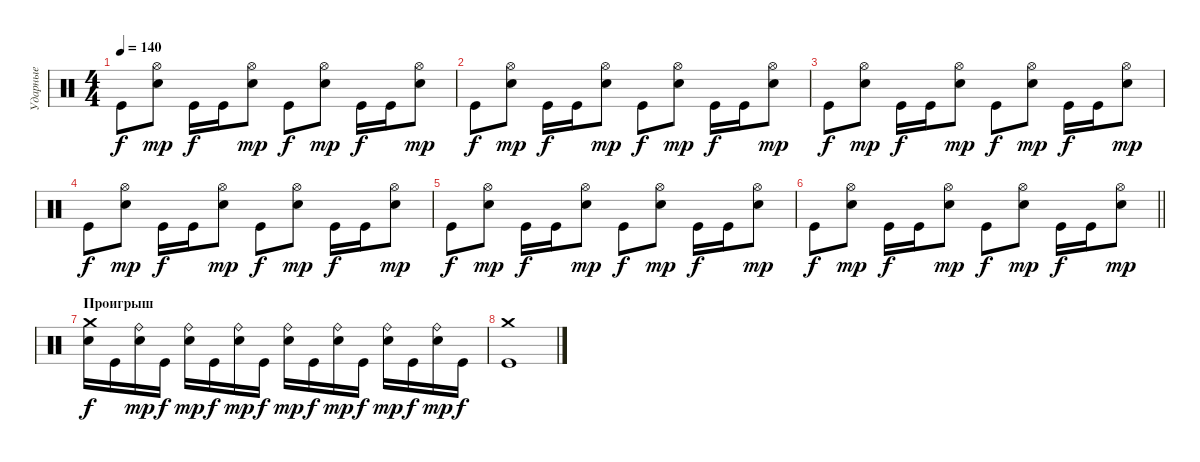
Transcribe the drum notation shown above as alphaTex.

\track ("Ударные" "Ударные") {instrument percussion}
\staff {score}
\articulation defaults
\ts (4 4)
\tempo 140
\clef neutral
\ks c "Kick (hit)".8{dy f}
("Hi-Hat (open)" "Electric Snare (hit)").8{dy mp} "Kick (hit)".16{dy f} "Kick (hit)".16 ("Hi-Hat (open)" "Electric Snare (hit)").8{dy mp} "Kick (hit)".8{dy f} ("Hi-Hat (open)" "Electric Snare (hit)").8{dy mp} "Kick (hit)".16{dy f} "Kick (hit)".16 ("Hi-Hat (open)" "Electric Snare (hit)").8{dy mp} |
"Kick (hit)".8{dy f} ("Hi-Hat (open)" "Electric Snare (hit)").8{dy mp} "Kick (hit)".16{dy f} "Kick (hit)".16 ("Hi-Hat (open)" "Electric Snare (hit)").8{dy mp} "Kick (hit)".8{dy f} ("Hi-Hat (open)" "Electric Snare (hit)").8{dy mp} "Kick (hit)".16{dy f} "Kick (hit)".16 ("Hi-Hat (open)" "Electric Snare (hit)").8{dy mp} |
"Kick (hit)".8{dy f} ("Hi-Hat (open)" "Electric Snare (hit)").8{dy mp} "Kick (hit)".16{dy f} "Kick (hit)".16 ("Hi-Hat (open)" "Electric Snare (hit)").8{dy mp} "Kick (hit)".8{dy f} ("Hi-Hat (open)" "Electric Snare (hit)").8{dy mp} "Kick (hit)".16{dy f} "Kick (hit)".16 ("Hi-Hat (open)" "Electric Snare (hit)").8{dy mp} |
"Kick (hit)".8{dy f} ("Hi-Hat (open)" "Electric Snare (hit)").8{dy mp} "Kick (hit)".16{dy f} "Kick (hit)".16 ("Hi-Hat (open)" "Electric Snare (hit)").8{dy mp} "Kick (hit)".8{dy f} ("Hi-Hat (open)" "Electric Snare (hit)").8{dy mp} "Kick (hit)".16{dy f} "Kick (hit)".16 ("Hi-Hat (open)" "Electric Snare (hit)").8{dy mp} |
"Kick (hit)".8{dy f} ("Hi-Hat (open)" "Electric Snare (hit)").8{dy mp} "Kick (hit)".16{dy f} "Kick (hit)".16 ("Hi-Hat (open)" "Electric Snare (hit)").8{dy mp} "Kick (hit)".8{dy f} ("Hi-Hat (open)" "Electric Snare (hit)").8{dy mp} "Kick (hit)".16{dy f} "Kick (hit)".16 ("Hi-Hat (open)" "Electric Snare (hit)").8{dy mp} |
\barLineRight lightlight "Kick (hit)".8{dy f}
("Hi-Hat (open)" "Electric Snare (hit)").8{dy mp} "Kick (hit)".16{dy f} "Kick (hit)".16 ("Hi-Hat (open)" "Electric Snare (hit)").8{dy mp} "Kick (hit)".8{dy f} ("Hi-Hat (open)" "Electric Snare (hit)").8{dy mp} "Kick (hit)".16{dy f} "Kick (hit)".16 ("Hi-Hat (open)" "Electric Snare (hit)").8{dy mp} |
\section ("" "Проигрыш")
("Crash medium (hit)" "Electric Snare (hit)").16{dy f} "Kick (hit)".16 ("Ride (bell)" "Electric Snare (hit)").16{dy mp} "Kick (hit)".16{dy f} ("Ride (bell)" "Electric Snare (hit)").16{dy mp} "Kick (hit)".16{dy f} ("Ride (bell)" "Electric Snare (hit)").16{dy mp} "Kick (hit)".16{dy f} ("Ride (bell)" "Electric Snare (hit)").16{dy mp} "Kick (hit)".16{dy f} ("Ride (bell)" "Electric Snare (hit)").16{dy mp} "Kick (hit)".16{dy f} ("Ride (bell)" "Electric Snare (hit)").16{dy mp} "Kick (hit)".16{dy f} ("Ride (bell)" "Electric Snare (hit)").16{dy mp} "Kick (hit)".16{dy f} |
("Crash medium (hit)" "Kick (hit)").1
